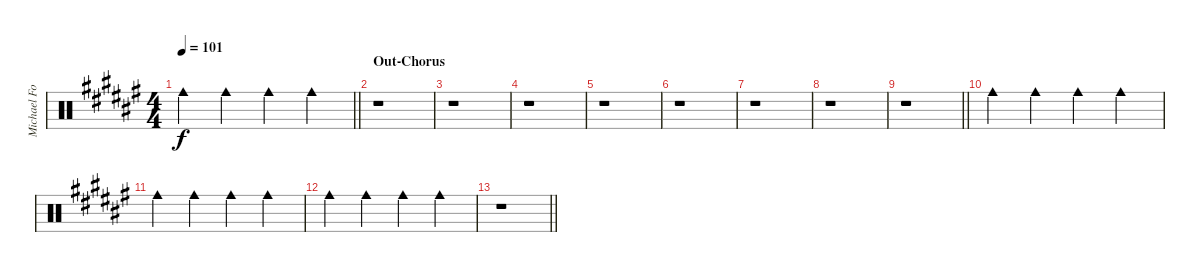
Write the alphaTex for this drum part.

\track ("Michael Foster" "Michael Fo") {instrument percussion}
\staff {score}
\articulation defaults
\ts (4 4)
\tempo 101
\clef neutral
\barLineRight lightlight
\ks f# "Cowbell medium (hit)".4{dy f} "Cowbell medium (hit)".4 "Cowbell medium (hit)".4 "Cowbell medium (hit)".4
|
\section ("" "Out-Chorus")
r.1 |
r.1 |
r.1 |
r.1 |
r.1 |
r.1 |
r.1 |
\barLineRight lightlight
r.1 |
"Cowbell medium (hit)".4 "Cowbell medium (hit)".4 "Cowbell medium (hit)".4 "Cowbell medium (hit)".4 |
"Cowbell medium (hit)".4 "Cowbell medium (hit)".4 "Cowbell medium (hit)".4 "Cowbell medium (hit)".4 |
"Cowbell medium (hit)".4 "Cowbell medium (hit)".4 "Cowbell medium (hit)".4 "Cowbell medium (hit)".4 |
\barLineRight lightlight
r.1
